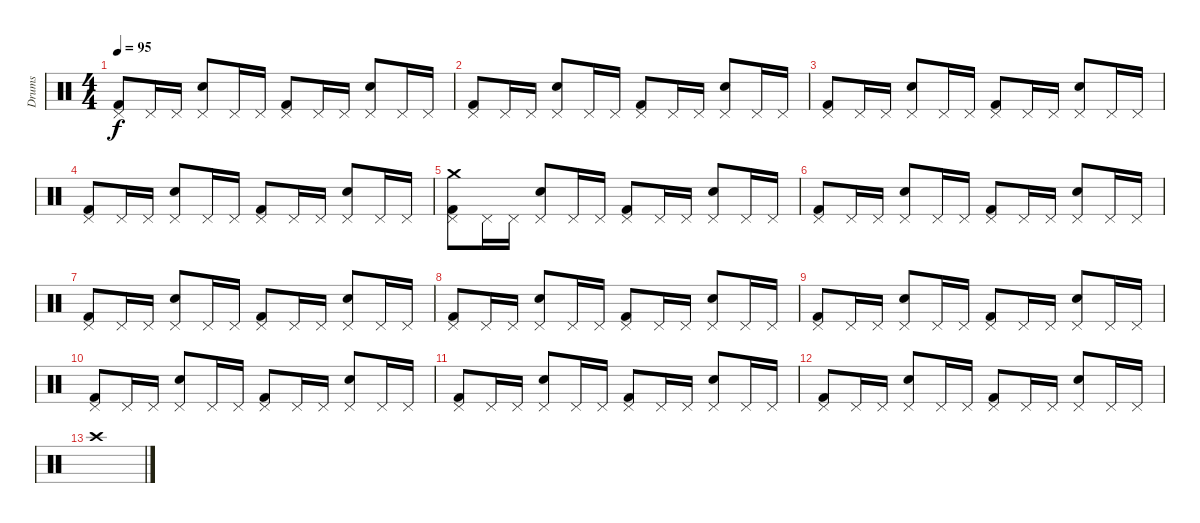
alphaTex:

\track ("Drums" "Drums") {instrument percussion}
\staff {score}
\articulation defaults
\ts (4 4)
\tempo 95
\clef neutral
\ks c
("Pedal Hi-Hat (hit)" "Kick (hit) 2").8{dy f} "Pedal Hi-Hat (hit)".16 "Pedal Hi-Hat (hit)".16 ("Pedal Hi-Hat (hit)" "Snare (hit) 2").8 "Pedal Hi-Hat (hit)".16 "Pedal Hi-Hat (hit)".16 ("Pedal Hi-Hat (hit)" "Kick (hit) 2").8 "Pedal Hi-Hat (hit)".16 "Pedal Hi-Hat (hit)".16 ("Pedal Hi-Hat (hit)" "Snare (hit) 2").8 "Pedal Hi-Hat (hit)".16 "Pedal Hi-Hat (hit)".16 |
("Pedal Hi-Hat (hit)" "Kick (hit) 2").8 "Pedal Hi-Hat (hit)".16 "Pedal Hi-Hat (hit)".16 ("Pedal Hi-Hat (hit)" "Snare (hit) 2").8 "Pedal Hi-Hat (hit)".16 "Pedal Hi-Hat (hit)".16 ("Pedal Hi-Hat (hit)" "Kick (hit) 2").8 "Pedal Hi-Hat (hit)".16 "Pedal Hi-Hat (hit)".16 ("Pedal Hi-Hat (hit)" "Snare (hit) 2").8 "Pedal Hi-Hat (hit)".16 "Pedal Hi-Hat (hit)".16 |
("Pedal Hi-Hat (hit)" "Kick (hit) 2").8 "Pedal Hi-Hat (hit)".16 "Pedal Hi-Hat (hit)".16 ("Pedal Hi-Hat (hit)" "Snare (hit) 2").8 "Pedal Hi-Hat (hit)".16 "Pedal Hi-Hat (hit)".16 ("Pedal Hi-Hat (hit)" "Kick (hit) 2").8 "Pedal Hi-Hat (hit)".16 "Pedal Hi-Hat (hit)".16 ("Pedal Hi-Hat (hit)" "Snare (hit) 2").8 "Pedal Hi-Hat (hit)".16 "Pedal Hi-Hat (hit)".16 |
("Pedal Hi-Hat (hit)" "Kick (hit) 2").8 "Pedal Hi-Hat (hit)".16 "Pedal Hi-Hat (hit)".16 ("Pedal Hi-Hat (hit)" "Snare (hit) 2").8 "Pedal Hi-Hat (hit)".16 "Pedal Hi-Hat (hit)".16 ("Pedal Hi-Hat (hit)" "Kick (hit) 2").8 "Pedal Hi-Hat (hit)".16 "Pedal Hi-Hat (hit)".16 ("Pedal Hi-Hat (hit)" "Snare (hit) 2").8 "Pedal Hi-Hat (hit)".16 "Pedal Hi-Hat (hit)".16 |
("Crash medium (hit)" "Pedal Hi-Hat (hit)" "Kick (hit) 2").8 "Pedal Hi-Hat (hit)".16 "Pedal Hi-Hat (hit)".16 ("Pedal Hi-Hat (hit)" "Snare (hit) 2").8 "Pedal Hi-Hat (hit)".16 "Pedal Hi-Hat (hit)".16 ("Pedal Hi-Hat (hit)" "Kick (hit) 2").8 "Pedal Hi-Hat (hit)".16 "Pedal Hi-Hat (hit)".16 ("Pedal Hi-Hat (hit)" "Snare (hit) 2").8 "Pedal Hi-Hat (hit)".16 "Pedal Hi-Hat (hit)".16 |
("Pedal Hi-Hat (hit)" "Kick (hit) 2").8 "Pedal Hi-Hat (hit)".16 "Pedal Hi-Hat (hit)".16 ("Pedal Hi-Hat (hit)" "Snare (hit) 2").8 "Pedal Hi-Hat (hit)".16 "Pedal Hi-Hat (hit)".16 ("Pedal Hi-Hat (hit)" "Kick (hit) 2").8 "Pedal Hi-Hat (hit)".16 "Pedal Hi-Hat (hit)".16 ("Pedal Hi-Hat (hit)" "Snare (hit) 2").8 "Pedal Hi-Hat (hit)".16 "Pedal Hi-Hat (hit)".16 |
("Pedal Hi-Hat (hit)" "Kick (hit) 2").8 "Pedal Hi-Hat (hit)".16 "Pedal Hi-Hat (hit)".16 ("Pedal Hi-Hat (hit)" "Snare (hit) 2").8 "Pedal Hi-Hat (hit)".16 "Pedal Hi-Hat (hit)".16 ("Pedal Hi-Hat (hit)" "Kick (hit) 2").8 "Pedal Hi-Hat (hit)".16 "Pedal Hi-Hat (hit)".16 ("Pedal Hi-Hat (hit)" "Snare (hit) 2").8 "Pedal Hi-Hat (hit)".16 "Pedal Hi-Hat (hit)".16 |
("Pedal Hi-Hat (hit)" "Kick (hit) 2").8 "Pedal Hi-Hat (hit)".16 "Pedal Hi-Hat (hit)".16 ("Pedal Hi-Hat (hit)" "Snare (hit) 2").8 "Pedal Hi-Hat (hit)".16 "Pedal Hi-Hat (hit)".16 ("Pedal Hi-Hat (hit)" "Kick (hit) 2").8 "Pedal Hi-Hat (hit)".16 "Pedal Hi-Hat (hit)".16 ("Pedal Hi-Hat (hit)" "Snare (hit) 2").8 "Pedal Hi-Hat (hit)".16 "Pedal Hi-Hat (hit)".16 |
("Pedal Hi-Hat (hit)" "Kick (hit) 2").8 "Pedal Hi-Hat (hit)".16 "Pedal Hi-Hat (hit)".16 ("Pedal Hi-Hat (hit)" "Snare (hit) 2").8 "Pedal Hi-Hat (hit)".16 "Pedal Hi-Hat (hit)".16 ("Pedal Hi-Hat (hit)" "Kick (hit) 2").8 "Pedal Hi-Hat (hit)".16 "Pedal Hi-Hat (hit)".16 ("Pedal Hi-Hat (hit)" "Snare (hit) 2").8 "Pedal Hi-Hat (hit)".16 "Pedal Hi-Hat (hit)".16 |
("Pedal Hi-Hat (hit)" "Kick (hit) 2").8 "Pedal Hi-Hat (hit)".16 "Pedal Hi-Hat (hit)".16 ("Pedal Hi-Hat (hit)" "Snare (hit) 2").8 "Pedal Hi-Hat (hit)".16 "Pedal Hi-Hat (hit)".16 ("Pedal Hi-Hat (hit)" "Kick (hit) 2").8 "Pedal Hi-Hat (hit)".16 "Pedal Hi-Hat (hit)".16 ("Pedal Hi-Hat (hit)" "Snare (hit) 2").8 "Pedal Hi-Hat (hit)".16 "Pedal Hi-Hat (hit)".16 |
("Pedal Hi-Hat (hit)" "Kick (hit) 2").8 "Pedal Hi-Hat (hit)".16 "Pedal Hi-Hat (hit)".16 ("Pedal Hi-Hat (hit)" "Snare (hit) 2").8 "Pedal Hi-Hat (hit)".16 "Pedal Hi-Hat (hit)".16 ("Pedal Hi-Hat (hit)" "Kick (hit) 2").8 "Pedal Hi-Hat (hit)".16 "Pedal Hi-Hat (hit)".16 ("Pedal Hi-Hat (hit)" "Snare (hit) 2").8 "Pedal Hi-Hat (hit)".16 "Pedal Hi-Hat (hit)".16 |
("Pedal Hi-Hat (hit)" "Kick (hit) 2").8 "Pedal Hi-Hat (hit)".16 "Pedal Hi-Hat (hit)".16 ("Pedal Hi-Hat (hit)" "Snare (hit) 2").8 "Pedal Hi-Hat (hit)".16 "Pedal Hi-Hat (hit)".16 ("Pedal Hi-Hat (hit)" "Kick (hit) 2").8 "Pedal Hi-Hat (hit)".16 "Pedal Hi-Hat (hit)".16 ("Pedal Hi-Hat (hit)" "Snare (hit) 2").8 "Pedal Hi-Hat (hit)".16 "Pedal Hi-Hat (hit)".16 |
"Crash high (hit)".1
